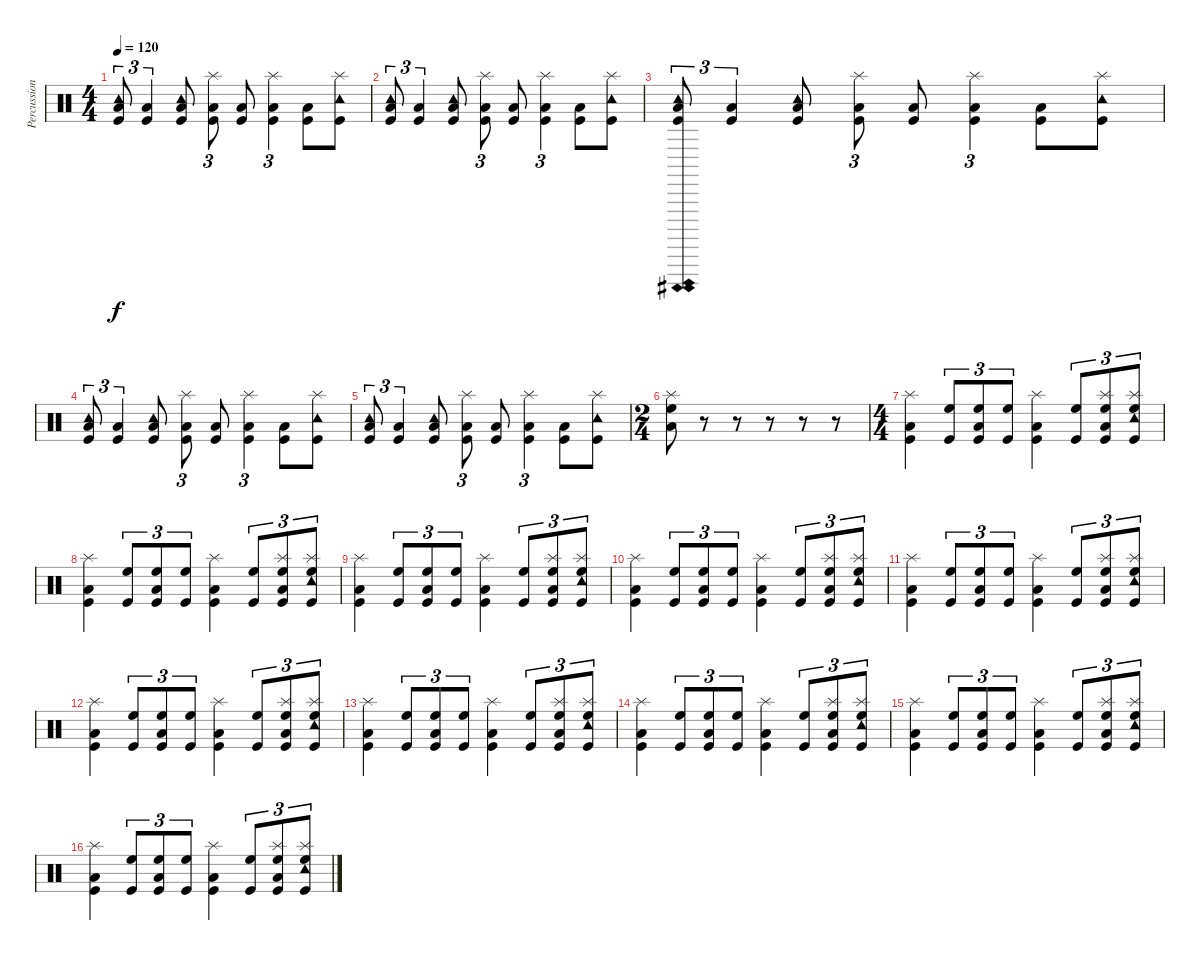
\track ("Percussion" "Percussion") {instrument percussion}
\staff {score}
\articulation defaults
\ts (4 4)
\tempo 120
\clef neutral
\ks c
("Tambourine (hit)" "Low Tom (hit)" "Kick (hit)").8{tu (3 2) dy f} ("Low Tom (hit)" "Kick (hit)").4{tu (3 2)} ("Low Tom (hit)" "Tambourine (hit)" "Kick (hit)").8 ("Low Tom (hit)" "Splash (hit)" "Kick (hit)").8{tu (3 2)} ("Low Tom (hit)" "Kick (hit)").8 ("Splash (hit)" "Low Tom (hit)" "Kick (hit)").4{tu (3 2)} ("Low Tom (hit)" "Kick (hit)").8 ("Splash (hit)" "Tambourine (hit)" "Kick (hit)").8 |
("Tambourine (hit)" "Low Tom (hit)" "Kick (hit)").8{tu (3 2)} ("Low Tom (hit)" "Kick (hit)").4{tu (3 2)} ("Low Tom (hit)" "Tambourine (hit)" "Kick (hit)").8 ("Low Tom (hit)" "Splash (hit)" "Kick (hit)").8{tu (3 2)} ("Low Tom (hit)" "Kick (hit)").8 ("Splash (hit)" "Low Tom (hit)" "Kick (hit)").4{tu (3 2)} ("Low Tom (hit)" "Kick (hit)").8 ("Splash (hit)" "Tambourine (hit)" "Kick (hit)").8 |
("Tambourine (hit)"{ah 12} "Low Tom (hit)"{ah 12} "Kick (hit)"{ah 12}).8{tu (3 2)} ("Low Tom (hit)" "Kick (hit)").4{tu (3 2)} ("Low Tom (hit)" "Tambourine (hit)" "Kick (hit)").8 ("Low Tom (hit)" "Splash (hit)" "Kick (hit)").8{tu (3 2)} ("Low Tom (hit)" "Kick (hit)").8 ("Splash (hit)" "Low Tom (hit)" "Kick (hit)").4{tu (3 2)} ("Low Tom (hit)" "Kick (hit)").8 ("Splash (hit)" "Tambourine (hit)" "Kick (hit)").8 |
("Tambourine (hit)" "Low Tom (hit)" "Kick (hit)").8{tu (3 2)} ("Low Tom (hit)" "Kick (hit)").4{tu (3 2)} ("Low Tom (hit)" "Tambourine (hit)" "Kick (hit)").8 ("Low Tom (hit)" "Splash (hit)" "Kick (hit)").8{tu (3 2)} ("Low Tom (hit)" "Kick (hit)").8 ("Splash (hit)" "Low Tom (hit)" "Kick (hit)").4{tu (3 2)} ("Low Tom (hit)" "Kick (hit)").8 ("Splash (hit)" "Tambourine (hit)" "Kick (hit)").8 |
("Tambourine (hit)" "Low Tom (hit)" "Kick (hit)").8{tu (3 2)} ("Low Tom (hit)" "Kick (hit)").4{tu (3 2)} ("Low Tom (hit)" "Tambourine (hit)" "Kick (hit)").8 ("Low Tom (hit)" "Splash (hit)" "Kick (hit)").8{tu (3 2)} ("Low Tom (hit)" "Kick (hit)").8 ("Splash (hit)" "Low Tom (hit)" "Kick (hit)").4{tu (3 2)} ("Low Tom (hit)" "Kick (hit)").8 ("Splash (hit)" "Tambourine (hit)" "Kick (hit)").8 |
\ts (2 4)
("Low Tom (hit)" "Splash (hit)" "High Floor Tom (hit)").8 r.8 r.8 r.8 r.8 r.8 |
\ts (4 4)
("Low Tom (hit)" "Splash (hit)" "Kick (hit)").4 ("High Floor Tom (hit)" "Kick (hit)").8{tu (3 2)} ("Low Tom (hit)" "High Floor Tom (hit)" "Kick (hit)").8{tu (3 2)} ("High Floor Tom (hit)" "Kick (hit)").8{tu (3 2)} ("Splash (hit)" "Low Tom (hit)" "Kick (hit)").4 ("High Floor Tom (hit)" "Kick (hit)").8{tu (3 2)} ("Splash (hit)" "Low Tom (hit)" "High Floor Tom (hit)" "Kick (hit)").8{tu (3 2)} ("Tambourine (hit)" "High Floor Tom (hit)" "Splash (hit)" "Kick (hit)").8{tu (3 2)} |
("Low Tom (hit)" "Splash (hit)" "Kick (hit)").4 ("High Floor Tom (hit)" "Kick (hit)").8{tu (3 2)} ("Low Tom (hit)" "High Floor Tom (hit)" "Kick (hit)").8{tu (3 2)} ("High Floor Tom (hit)" "Kick (hit)").8{tu (3 2)} ("Splash (hit)" "Low Tom (hit)" "Kick (hit)").4 ("High Floor Tom (hit)" "Kick (hit)").8{tu (3 2)} ("Splash (hit)" "Low Tom (hit)" "High Floor Tom (hit)" "Kick (hit)").8{tu (3 2)} ("Tambourine (hit)" "High Floor Tom (hit)" "Splash (hit)" "Kick (hit)").8{tu (3 2)} |
("Low Tom (hit)" "Splash (hit)" "Kick (hit)").4 ("High Floor Tom (hit)" "Kick (hit)").8{tu (3 2)} ("Low Tom (hit)" "High Floor Tom (hit)" "Kick (hit)").8{tu (3 2)} ("High Floor Tom (hit)" "Kick (hit)").8{tu (3 2)} ("Splash (hit)" "Low Tom (hit)" "Kick (hit)").4 ("High Floor Tom (hit)" "Kick (hit)").8{tu (3 2)} ("Splash (hit)" "Low Tom (hit)" "High Floor Tom (hit)" "Kick (hit)").8{tu (3 2)} ("Tambourine (hit)" "High Floor Tom (hit)" "Splash (hit)" "Kick (hit)").8{tu (3 2)} |
("Low Tom (hit)" "Splash (hit)" "Kick (hit)").4 ("High Floor Tom (hit)" "Kick (hit)").8{tu (3 2)} ("Low Tom (hit)" "High Floor Tom (hit)" "Kick (hit)").8{tu (3 2)} ("High Floor Tom (hit)" "Kick (hit)").8{tu (3 2)} ("Splash (hit)" "Low Tom (hit)" "Kick (hit)").4 ("High Floor Tom (hit)" "Kick (hit)").8{tu (3 2)} ("Splash (hit)" "Low Tom (hit)" "High Floor Tom (hit)" "Kick (hit)").8{tu (3 2)} ("Tambourine (hit)" "High Floor Tom (hit)" "Splash (hit)" "Kick (hit)").8{tu (3 2)} |
("Low Tom (hit)" "Splash (hit)" "Kick (hit)").4 ("High Floor Tom (hit)" "Kick (hit)").8{tu (3 2)} ("Low Tom (hit)" "High Floor Tom (hit)" "Kick (hit)").8{tu (3 2)} ("High Floor Tom (hit)" "Kick (hit)").8{tu (3 2)} ("Splash (hit)" "Low Tom (hit)" "Kick (hit)").4 ("High Floor Tom (hit)" "Kick (hit)").8{tu (3 2)} ("Splash (hit)" "Low Tom (hit)" "High Floor Tom (hit)" "Kick (hit)").8{tu (3 2)} ("Tambourine (hit)" "High Floor Tom (hit)" "Splash (hit)" "Kick (hit)").8{tu (3 2)} |
("Low Tom (hit)" "Splash (hit)" "Kick (hit)").4 ("High Floor Tom (hit)" "Kick (hit)").8{tu (3 2)} ("Low Tom (hit)" "High Floor Tom (hit)" "Kick (hit)").8{tu (3 2)} ("High Floor Tom (hit)" "Kick (hit)").8{tu (3 2)} ("Splash (hit)" "Low Tom (hit)" "Kick (hit)").4 ("High Floor Tom (hit)" "Kick (hit)").8{tu (3 2)} ("Splash (hit)" "Low Tom (hit)" "High Floor Tom (hit)" "Kick (hit)").8{tu (3 2)} ("Tambourine (hit)" "High Floor Tom (hit)" "Splash (hit)" "Kick (hit)").8{tu (3 2)} |
("Low Tom (hit)" "Splash (hit)" "Kick (hit)").4 ("High Floor Tom (hit)" "Kick (hit)").8{tu (3 2)} ("Low Tom (hit)" "High Floor Tom (hit)" "Kick (hit)").8{tu (3 2)} ("High Floor Tom (hit)" "Kick (hit)").8{tu (3 2)} ("Splash (hit)" "Low Tom (hit)" "Kick (hit)").4 ("High Floor Tom (hit)" "Kick (hit)").8{tu (3 2)} ("Splash (hit)" "Low Tom (hit)" "High Floor Tom (hit)" "Kick (hit)").8{tu (3 2)} ("Tambourine (hit)" "High Floor Tom (hit)" "Splash (hit)" "Kick (hit)").8{tu (3 2)} |
("Low Tom (hit)" "Splash (hit)" "Kick (hit)").4 ("High Floor Tom (hit)" "Kick (hit)").8{tu (3 2)} ("Low Tom (hit)" "High Floor Tom (hit)" "Kick (hit)").8{tu (3 2)} ("High Floor Tom (hit)" "Kick (hit)").8{tu (3 2)} ("Splash (hit)" "Low Tom (hit)" "Kick (hit)").4 ("High Floor Tom (hit)" "Kick (hit)").8{tu (3 2)} ("Splash (hit)" "Low Tom (hit)" "High Floor Tom (hit)" "Kick (hit)").8{tu (3 2)} ("Tambourine (hit)" "High Floor Tom (hit)" "Splash (hit)" "Kick (hit)").8{tu (3 2)} |
("Low Tom (hit)" "Splash (hit)" "Kick (hit)").4 ("High Floor Tom (hit)" "Kick (hit)").8{tu (3 2)} ("Low Tom (hit)" "High Floor Tom (hit)" "Kick (hit)").8{tu (3 2)} ("High Floor Tom (hit)" "Kick (hit)").8{tu (3 2)} ("Splash (hit)" "Low Tom (hit)" "Kick (hit)").4 ("High Floor Tom (hit)" "Kick (hit)").8{tu (3 2)} ("Splash (hit)" "Low Tom (hit)" "High Floor Tom (hit)" "Kick (hit)").8{tu (3 2)} ("Tambourine (hit)" "High Floor Tom (hit)" "Splash (hit)" "Kick (hit)").8{tu (3 2)} |
("Low Tom (hit)" "Splash (hit)" "Kick (hit)").4 ("High Floor Tom (hit)" "Kick (hit)").8{tu (3 2)} ("Low Tom (hit)" "High Floor Tom (hit)" "Kick (hit)").8{tu (3 2)} ("High Floor Tom (hit)" "Kick (hit)").8{tu (3 2)} ("Splash (hit)" "Low Tom (hit)" "Kick (hit)").4 ("High Floor Tom (hit)" "Kick (hit)").8{tu (3 2)} ("Splash (hit)" "Low Tom (hit)" "High Floor Tom (hit)" "Kick (hit)").8{tu (3 2)} ("Tambourine (hit)" "High Floor Tom (hit)" "Splash (hit)" "Kick (hit)").8{tu (3 2)}
